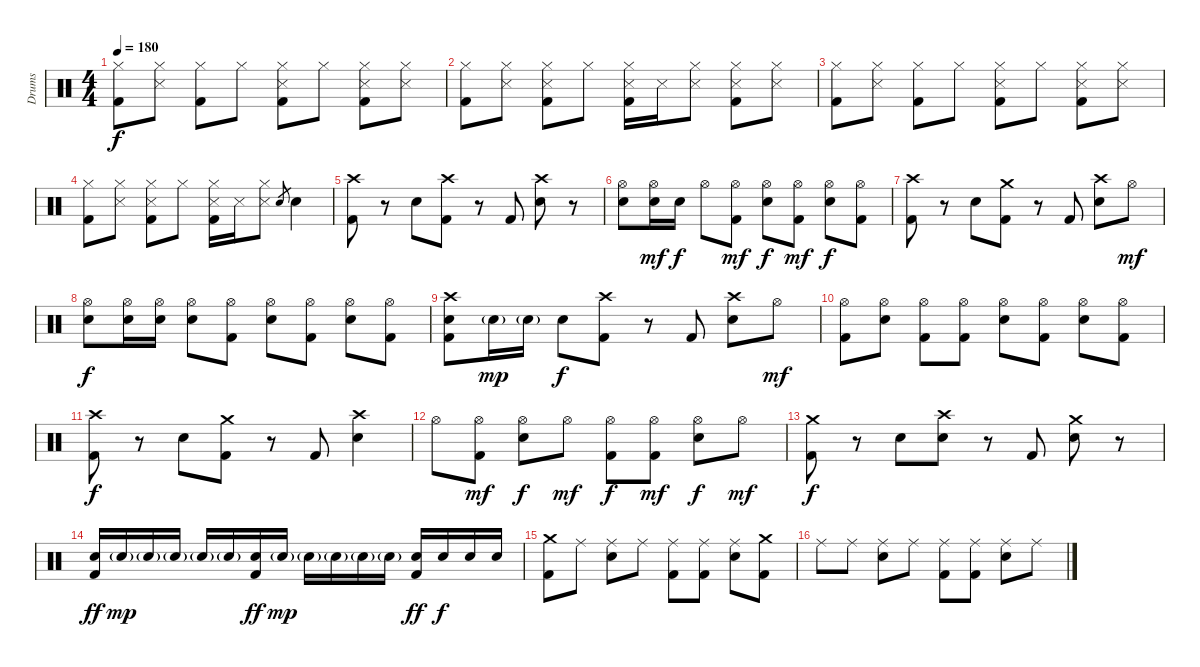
\track ("Drums" "Drums") {instrument percussion}
\staff {score}
\articulation defaults
\ts (4 4)
\tempo 180
\clef neutral
\ks c
("Hi-Hat (closed)" "Kick (hit) 2").8{dy f} ("Hi-Hat (closed)" "Snare (side stick) 3").8 ("Hi-Hat (closed)" "Kick (hit) 2").8 "Hi-Hat (closed)".8 ("Hi-Hat (closed)" "Snare (side stick) 3" "Kick (hit) 2").8 "Hi-Hat (closed)".8 ("Hi-Hat (closed)" "Snare (side stick) 3" "Kick (hit) 2").8 ("Hi-Hat (closed)" "Snare (side stick) 3").8 |
("Hi-Hat (closed)" "Kick (hit) 2").8 ("Hi-Hat (closed)" "Snare (side stick) 3").8 ("Hi-Hat (closed)" "Snare (side stick) 3" "Kick (hit) 2").8 "Hi-Hat (closed)".8 ("Hi-Hat (closed)" "Snare (side stick) 3" "Kick (hit) 2").16 "Snare (side stick) 3".16 ("Hi-Hat (closed)" "Snare (side stick) 3").8 ("Hi-Hat (closed)" "Snare (side stick) 3" "Kick (hit) 2").8 ("Hi-Hat (closed)" "Snare (side stick) 3").8 |
("Hi-Hat (closed)" "Kick (hit) 2").8 ("Hi-Hat (closed)" "Snare (side stick) 3").8 ("Hi-Hat (closed)" "Kick (hit) 2").8 "Hi-Hat (closed)".8 ("Hi-Hat (closed)" "Snare (side stick) 3" "Kick (hit) 2").8 "Hi-Hat (closed)".8 ("Hi-Hat (closed)" "Snare (side stick) 3" "Kick (hit) 2").8 ("Hi-Hat (closed)" "Snare (side stick) 3").8 |
("Hi-Hat (closed)" "Kick (hit) 2").8 ("Hi-Hat (closed)" "Snare (side stick) 3").8 ("Hi-Hat (closed)" "Snare (side stick) 3" "Kick (hit) 2").8 "Hi-Hat (closed)".8 ("Hi-Hat (closed)" "Snare (side stick) 3" "Kick (hit) 2").16 "Snare (side stick) 3".16 ("Hi-Hat (closed)" "Snare (side stick) 3").8 "Electric Snare (hit)".8{gr} "Electric Snare (hit)".4 |
("Crash high (hit)" "Kick (hit) 2").8 r.8 "Electric Snare (hit)".8 ("Crash high (hit)" "Kick (hit) 2").8 r.8 "Kick (hit) 2".8 ("Crash high (hit)" "Electric Snare (hit)").8 r.8 |
("Hi-Hat (open)" "Electric Snare (hit)").8 ("Hi-Hat (open)" "Electric Snare (hit)").16{dy mf} "Electric Snare (hit)".16{dy f} "Hi-Hat (open)".8 ("Hi-Hat (open)" "Kick (hit) 2").8{dy mf} ("Hi-Hat (open)" "Electric Snare (hit)").8{dy f} ("Hi-Hat (open)" "Kick (hit) 2").8{dy mf} ("Hi-Hat (open)" "Electric Snare (hit)").8{dy f} ("Hi-Hat (open)" "Kick (hit) 2").8 |
("Crash high (hit)" "Kick (hit) 2").8 r.8 "Electric Snare (hit)".8 ("Crash medium (hit)" "Kick (hit) 2").8 r.8 "Kick (hit) 2".8 ("Crash high (hit)" "Electric Snare (hit)").8 "Hi-Hat (open)".8{dy mf} |
("Hi-Hat (open)" "Electric Snare (hit)").8{dy f} ("Hi-Hat (open)" "Electric Snare (hit)").16 ("Hi-Hat (open)" "Electric Snare (hit)").16 ("Hi-Hat (open)" "Electric Snare (hit)").8 ("Hi-Hat (open)" "Kick (hit) 2").8 ("Hi-Hat (open)" "Electric Snare (hit)").8 ("Hi-Hat (open)" "Kick (hit) 2").8 ("Hi-Hat (open)" "Electric Snare (hit)").8 ("Hi-Hat (open)" "Kick (hit) 2").8 |
("Crash high (hit)" "Electric Snare (hit)" "Kick (hit) 2").8 "Electric Snare (hit)"{g}.16{dy mp} "Electric Snare (hit)"{g}.16 "Electric Snare (hit)".8{dy f} ("Crash high (hit)" "Kick (hit) 2").8 r.8 "Kick (hit) 2".8 ("Crash high (hit)" "Electric Snare (hit)").8 "Hi-Hat (open)".8{dy mf} |
("Hi-Hat (open)" "Kick (hit) 2").8 ("Hi-Hat (open)" "Electric Snare (hit)").8 ("Hi-Hat (open)" "Kick (hit) 2").8 ("Hi-Hat (open)" "Kick (hit) 2").8 ("Hi-Hat (open)" "Electric Snare (hit)").8 ("Hi-Hat (open)" "Kick (hit) 2").8 ("Hi-Hat (open)" "Electric Snare (hit)").8 ("Hi-Hat (open)" "Kick (hit) 2").8 |
("Crash high (hit)" "Kick (hit) 2").8{dy f} r.8 "Electric Snare (hit)".8 ("Crash medium (hit)" "Kick (hit) 2").8 r.8 "Kick (hit) 2".8 ("Crash high (hit)" "Electric Snare (hit)").4 |
"Hi-Hat (open)".8 ("Hi-Hat (open)" "Kick (hit) 2").8{dy mf} ("Hi-Hat (open)" "Electric Snare (hit)").8{dy f} "Hi-Hat (open)".8{dy mf} ("Hi-Hat (open)" "Kick (hit) 2").8{dy f} ("Hi-Hat (open)" "Kick (hit) 2").8{dy mf} ("Hi-Hat (open)" "Electric Snare (hit)").8{dy f} "Hi-Hat (open)".8{dy mf} |
("Crash medium (hit)" "Kick (hit) 2").8{dy f} r.8 "Electric Snare (hit)".8 ("Crash high (hit)" "Electric Snare (hit)").8 r.8 "Kick (hit) 2".8 ("Crash medium (hit)" "Electric Snare (hit)").8 r.8 |
("Electric Snare (hit)" "Kick (hit) 2").16{dy ff} "Electric Snare (hit)"{g}.16{dy mp} "Electric Snare (hit)"{g}.16 "Electric Snare (hit)"{g}.16 "Electric Snare (hit)"{g}.16 "Electric Snare (hit)"{g}.16 ("Electric Snare (hit)" "Kick (hit) 2").16{dy ff} "Electric Snare (hit)"{g}.16{dy mp} "Electric Snare (hit)"{g}.16 "Electric Snare (hit)"{g}.16 "Electric Snare (hit)"{g}.16 "Electric Snare (hit)"{g}.16 ("Electric Snare (hit)" "Kick (hit) 2").16{dy ff} "Electric Snare (hit)".16{dy f} "Electric Snare (hit)".16 "Electric Snare (hit)".16 |
("Crash medium (hit)" "Kick (hit) 2").8 "Ride (middle)".8 ("Ride (middle)" "Electric Snare (hit)").8 "Ride (middle)".8 ("Ride (middle)" "Kick (hit) 2").8 ("Ride (middle)" "Kick (hit) 2").8 ("Ride (middle)" "Electric Snare (hit)").8 ("Crash medium (hit)" "Kick (hit) 2").8 |
"Ride (middle)".8 "Ride (middle)".8 ("Ride (middle)" "Electric Snare (hit)").8 "Ride (middle)".8 ("Ride (middle)" "Kick (hit) 2").8 ("Ride (middle)" "Kick (hit) 2").8 ("Ride (middle)" "Electric Snare (hit)").8 "Ride (middle)".8
